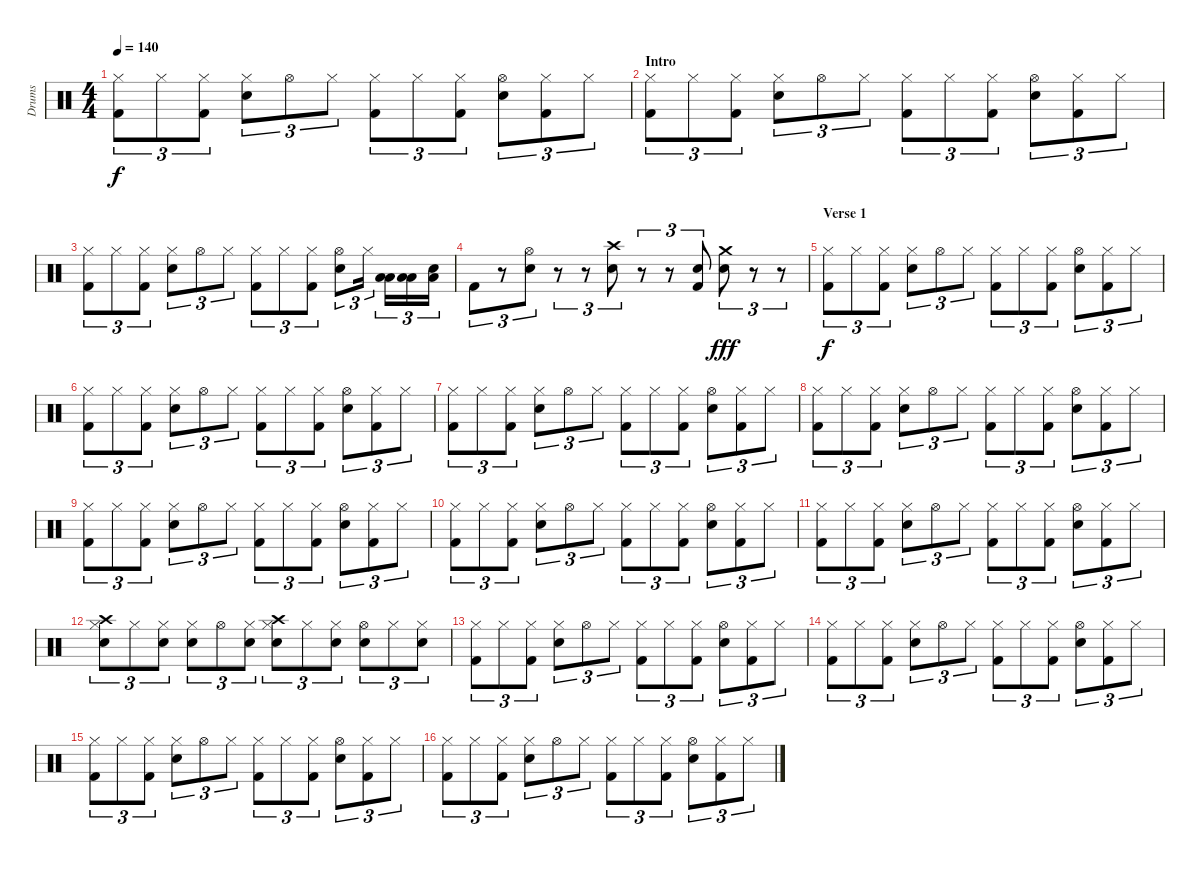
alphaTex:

\track ("Drums" "Drums") {instrument percussion}
\staff {score}
\articulation defaults
\ts (4 4)
\tempo 140
\clef neutral
\ks c
("Kick (hit) 2" "Hi-Hat (closed)").8{tu (3 2) dy f} "Hi-Hat (closed)".8{tu (3 2)} ("Kick (hit) 2" "Hi-Hat (closed)").8{tu (3 2)} ("Snare (hit) 2" "Hi-Hat (closed)").8{tu (3 2)} "Hi-Hat (open)".8{tu (3 2)} "Hi-Hat (closed)".8{tu (3 2)} ("Kick (hit) 2" "Hi-Hat (closed)").8{tu (3 2)} "Hi-Hat (closed)".8{tu (3 2)} ("Kick (hit) 2" "Hi-Hat (closed)").8{tu (3 2)} ("Snare (hit) 2" "Hi-Hat (open)").8{tu (3 2)} ("Kick (hit) 2" "Hi-Hat (closed)").8{tu (3 2)} "Hi-Hat (closed)".8{tu (3 2)} |
\section ("" "Intro")
("Kick (hit) 2" "Hi-Hat (closed)").8{tu (3 2)} "Hi-Hat (closed)".8{tu (3 2)} ("Kick (hit) 2" "Hi-Hat (closed)").8{tu (3 2)} ("Snare (hit) 2" "Hi-Hat (closed)").8{tu (3 2)} "Hi-Hat (open)".8{tu (3 2)} "Hi-Hat (closed)".8{tu (3 2)} ("Kick (hit) 2" "Hi-Hat (closed)").8{tu (3 2)} "Hi-Hat (closed)".8{tu (3 2)} ("Kick (hit) 2" "Hi-Hat (closed)").8{tu (3 2)} ("Snare (hit) 2" "Hi-Hat (open)").8{tu (3 2)} ("Kick (hit) 2" "Hi-Hat (closed)").8{tu (3 2)} "Hi-Hat (closed)".8{tu (3 2)} |
("Kick (hit) 2" "Hi-Hat (closed)").8{tu (3 2)} "Hi-Hat (closed)".8{tu (3 2)} ("Kick (hit) 2" "Hi-Hat (closed)").8{tu (3 2)} ("Snare (hit) 2" "Hi-Hat (closed)").8{tu (3 2)} "Hi-Hat (open)".8{tu (3 2)} "Hi-Hat (closed)".8{tu (3 2)} ("Kick (hit) 2" "Hi-Hat (closed)").8{tu (3 2)} "Hi-Hat (closed)".8{tu (3 2)} ("Kick (hit) 2" "Hi-Hat (closed)").8{tu (3 2)} ("Snare (hit) 2" "Hi-Hat (open)").8{tu (3 2)} "Hi-Hat (closed)".16{tu (3 2)} ("Low Tom (hit)" "Low Floor Tom (hit)").16{tu (3 2)} ("Low Tom (hit)" "Low Floor Tom (hit)").16{tu (3 2)} ("Snare (hit) 2" "Low Floor Tom (hit)").16{tu (3 2)} |
"Kick (hit) 2".8{tu (3 2)} r.8{tu (3 2)} ("Snare (hit) 2" "Hi-Hat (open)").8{tu (3 2)} r.8{tu (3 2)} r.8{tu (3 2)} ("Snare (hit) 2" "Crash high (hit)").8{tu (3 2)} r.8{tu (3 2)} r.8{tu (3 2)} ("Snare (hit) 2" "Kick (hit) 2").8{tu (3 2)} ("Snare (hit) 2" "Crash medium (hit)").8{tu (3 2) dy fff} r.8{tu (3 2)} r.8{tu (3 2)} |
\section ("" "Verse 1")
("Kick (hit) 2" "Hi-Hat (closed)").8{tu (3 2) dy f} "Hi-Hat (closed)".8{tu (3 2)} ("Kick (hit) 2" "Hi-Hat (closed)").8{tu (3 2)} ("Snare (hit) 2" "Hi-Hat (closed)").8{tu (3 2)} "Hi-Hat (open)".8{tu (3 2)} "Hi-Hat (closed)".8{tu (3 2)} ("Kick (hit) 2" "Hi-Hat (closed)").8{tu (3 2)} "Hi-Hat (closed)".8{tu (3 2)} ("Kick (hit) 2" "Hi-Hat (closed)").8{tu (3 2)} ("Snare (hit) 2" "Hi-Hat (open)").8{tu (3 2)} ("Kick (hit) 2" "Hi-Hat (closed)").8{tu (3 2)} "Hi-Hat (closed)".8{tu (3 2)} |
("Kick (hit) 2" "Hi-Hat (closed)").8{tu (3 2)} "Hi-Hat (closed)".8{tu (3 2)} ("Kick (hit) 2" "Hi-Hat (closed)").8{tu (3 2)} ("Snare (hit) 2" "Hi-Hat (closed)").8{tu (3 2)} "Hi-Hat (open)".8{tu (3 2)} "Hi-Hat (closed)".8{tu (3 2)} ("Kick (hit) 2" "Hi-Hat (closed)").8{tu (3 2)} "Hi-Hat (closed)".8{tu (3 2)} ("Kick (hit) 2" "Hi-Hat (closed)").8{tu (3 2)} ("Snare (hit) 2" "Hi-Hat (open)").8{tu (3 2)} ("Kick (hit) 2" "Hi-Hat (closed)").8{tu (3 2)} "Hi-Hat (closed)".8{tu (3 2)} |
("Kick (hit) 2" "Hi-Hat (closed)").8{tu (3 2)} "Hi-Hat (closed)".8{tu (3 2)} ("Kick (hit) 2" "Hi-Hat (closed)").8{tu (3 2)} ("Snare (hit) 2" "Hi-Hat (closed)").8{tu (3 2)} "Hi-Hat (open)".8{tu (3 2)} "Hi-Hat (closed)".8{tu (3 2)} ("Kick (hit) 2" "Hi-Hat (closed)").8{tu (3 2)} "Hi-Hat (closed)".8{tu (3 2)} ("Kick (hit) 2" "Hi-Hat (closed)").8{tu (3 2)} ("Snare (hit) 2" "Hi-Hat (open)").8{tu (3 2)} ("Kick (hit) 2" "Hi-Hat (closed)").8{tu (3 2)} "Hi-Hat (closed)".8{tu (3 2)} |
("Kick (hit) 2" "Hi-Hat (closed)").8{tu (3 2)} "Hi-Hat (closed)".8{tu (3 2)} ("Kick (hit) 2" "Hi-Hat (closed)").8{tu (3 2)} ("Snare (hit) 2" "Hi-Hat (closed)").8{tu (3 2)} "Hi-Hat (open)".8{tu (3 2)} "Hi-Hat (closed)".8{tu (3 2)} ("Kick (hit) 2" "Hi-Hat (closed)").8{tu (3 2)} "Hi-Hat (closed)".8{tu (3 2)} ("Kick (hit) 2" "Hi-Hat (closed)").8{tu (3 2)} ("Snare (hit) 2" "Hi-Hat (open)").8{tu (3 2)} ("Kick (hit) 2" "Hi-Hat (closed)").8{tu (3 2)} "Hi-Hat (closed)".8{tu (3 2)} |
("Kick (hit) 2" "Hi-Hat (closed)").8{tu (3 2)} "Hi-Hat (closed)".8{tu (3 2)} ("Kick (hit) 2" "Hi-Hat (closed)").8{tu (3 2)} ("Snare (hit) 2" "Hi-Hat (closed)").8{tu (3 2)} "Hi-Hat (open)".8{tu (3 2)} "Hi-Hat (closed)".8{tu (3 2)} ("Kick (hit) 2" "Hi-Hat (closed)").8{tu (3 2)} "Hi-Hat (closed)".8{tu (3 2)} ("Kick (hit) 2" "Hi-Hat (closed)").8{tu (3 2)} ("Snare (hit) 2" "Hi-Hat (open)").8{tu (3 2)} ("Kick (hit) 2" "Hi-Hat (closed)").8{tu (3 2)} "Hi-Hat (closed)".8{tu (3 2)} |
("Kick (hit) 2" "Hi-Hat (closed)").8{tu (3 2)} "Hi-Hat (closed)".8{tu (3 2)} ("Kick (hit) 2" "Hi-Hat (closed)").8{tu (3 2)} ("Snare (hit) 2" "Hi-Hat (closed)").8{tu (3 2)} "Hi-Hat (open)".8{tu (3 2)} "Hi-Hat (closed)".8{tu (3 2)} ("Kick (hit) 2" "Hi-Hat (closed)").8{tu (3 2)} "Hi-Hat (closed)".8{tu (3 2)} ("Kick (hit) 2" "Hi-Hat (closed)").8{tu (3 2)} ("Snare (hit) 2" "Hi-Hat (open)").8{tu (3 2)} ("Kick (hit) 2" "Hi-Hat (closed)").8{tu (3 2)} "Hi-Hat (closed)".8{tu (3 2)} |
("Kick (hit) 2" "Hi-Hat (closed)").8{tu (3 2)} "Hi-Hat (closed)".8{tu (3 2)} ("Kick (hit) 2" "Hi-Hat (closed)").8{tu (3 2)} ("Snare (hit) 2" "Hi-Hat (closed)").8{tu (3 2)} "Hi-Hat (open)".8{tu (3 2)} "Hi-Hat (closed)".8{tu (3 2)} ("Kick (hit) 2" "Hi-Hat (closed)").8{tu (3 2)} "Hi-Hat (closed)".8{tu (3 2)} ("Kick (hit) 2" "Hi-Hat (closed)").8{tu (3 2)} ("Snare (hit) 2" "Hi-Hat (open)").8{tu (3 2)} ("Kick (hit) 2" "Hi-Hat (closed)").8{tu (3 2)} "Hi-Hat (closed)".8{tu (3 2)} |
("Snare (hit) 2" "Hi-Hat (closed)" "Crash high (hit)").8{tu (3 2)} "Hi-Hat (closed)".8{tu (3 2)} ("Snare (hit) 2" "Hi-Hat (closed)").8{tu (3 2)} ("Snare (hit) 2" "Hi-Hat (closed)").8{tu (3 2)} "Hi-Hat (open)".8{tu (3 2)} ("Snare (hit) 2" "Hi-Hat (closed)").8{tu (3 2)} ("Snare (hit) 2" "Hi-Hat (closed)" "Crash high (hit)").8{tu (3 2)} "Hi-Hat (closed)".8{tu (3 2)} ("Snare (hit) 2" "Hi-Hat (closed)").8{tu (3 2)} ("Snare (hit) 2" "Hi-Hat (open)").8{tu (3 2)} "Hi-Hat (closed)".8{tu (3 2)} ("Snare (hit) 2" "Hi-Hat (closed)").8{tu (3 2)} |
("Kick (hit) 2" "Hi-Hat (closed)").8{tu (3 2)} "Hi-Hat (closed)".8{tu (3 2)} ("Kick (hit) 2" "Hi-Hat (closed)").8{tu (3 2)} ("Snare (hit) 2" "Hi-Hat (closed)").8{tu (3 2)} "Hi-Hat (open)".8{tu (3 2)} "Hi-Hat (closed)".8{tu (3 2)} ("Kick (hit) 2" "Hi-Hat (closed)").8{tu (3 2)} "Hi-Hat (closed)".8{tu (3 2)} ("Kick (hit) 2" "Hi-Hat (closed)").8{tu (3 2)} ("Snare (hit) 2" "Hi-Hat (open)").8{tu (3 2)} ("Kick (hit) 2" "Hi-Hat (closed)").8{tu (3 2)} "Hi-Hat (closed)".8{tu (3 2)} |
("Kick (hit) 2" "Hi-Hat (closed)").8{tu (3 2)} "Hi-Hat (closed)".8{tu (3 2)} ("Kick (hit) 2" "Hi-Hat (closed)").8{tu (3 2)} ("Snare (hit) 2" "Hi-Hat (closed)").8{tu (3 2)} "Hi-Hat (open)".8{tu (3 2)} "Hi-Hat (closed)".8{tu (3 2)} ("Kick (hit) 2" "Hi-Hat (closed)").8{tu (3 2)} "Hi-Hat (closed)".8{tu (3 2)} ("Kick (hit) 2" "Hi-Hat (closed)").8{tu (3 2)} ("Snare (hit) 2" "Hi-Hat (open)").8{tu (3 2)} ("Kick (hit) 2" "Hi-Hat (closed)").8{tu (3 2)} "Hi-Hat (closed)".8{tu (3 2)} |
("Kick (hit) 2" "Hi-Hat (closed)").8{tu (3 2)} "Hi-Hat (closed)".8{tu (3 2)} ("Kick (hit) 2" "Hi-Hat (closed)").8{tu (3 2)} ("Snare (hit) 2" "Hi-Hat (closed)").8{tu (3 2)} "Hi-Hat (open)".8{tu (3 2)} "Hi-Hat (closed)".8{tu (3 2)} ("Kick (hit) 2" "Hi-Hat (closed)").8{tu (3 2)} "Hi-Hat (closed)".8{tu (3 2)} ("Kick (hit) 2" "Hi-Hat (closed)").8{tu (3 2)} ("Snare (hit) 2" "Hi-Hat (open)").8{tu (3 2)} ("Kick (hit) 2" "Hi-Hat (closed)").8{tu (3 2)} "Hi-Hat (closed)".8{tu (3 2)} |
("Kick (hit) 2" "Hi-Hat (closed)").8{tu (3 2)} "Hi-Hat (closed)".8{tu (3 2)} ("Kick (hit) 2" "Hi-Hat (closed)").8{tu (3 2)} ("Snare (hit) 2" "Hi-Hat (closed)").8{tu (3 2)} "Hi-Hat (open)".8{tu (3 2)} "Hi-Hat (closed)".8{tu (3 2)} ("Kick (hit) 2" "Hi-Hat (closed)").8{tu (3 2)} "Hi-Hat (closed)".8{tu (3 2)} ("Kick (hit) 2" "Hi-Hat (closed)").8{tu (3 2)} ("Snare (hit) 2" "Hi-Hat (open)").8{tu (3 2)} ("Kick (hit) 2" "Hi-Hat (closed)").8{tu (3 2)} "Hi-Hat (closed)".8{tu (3 2)}
